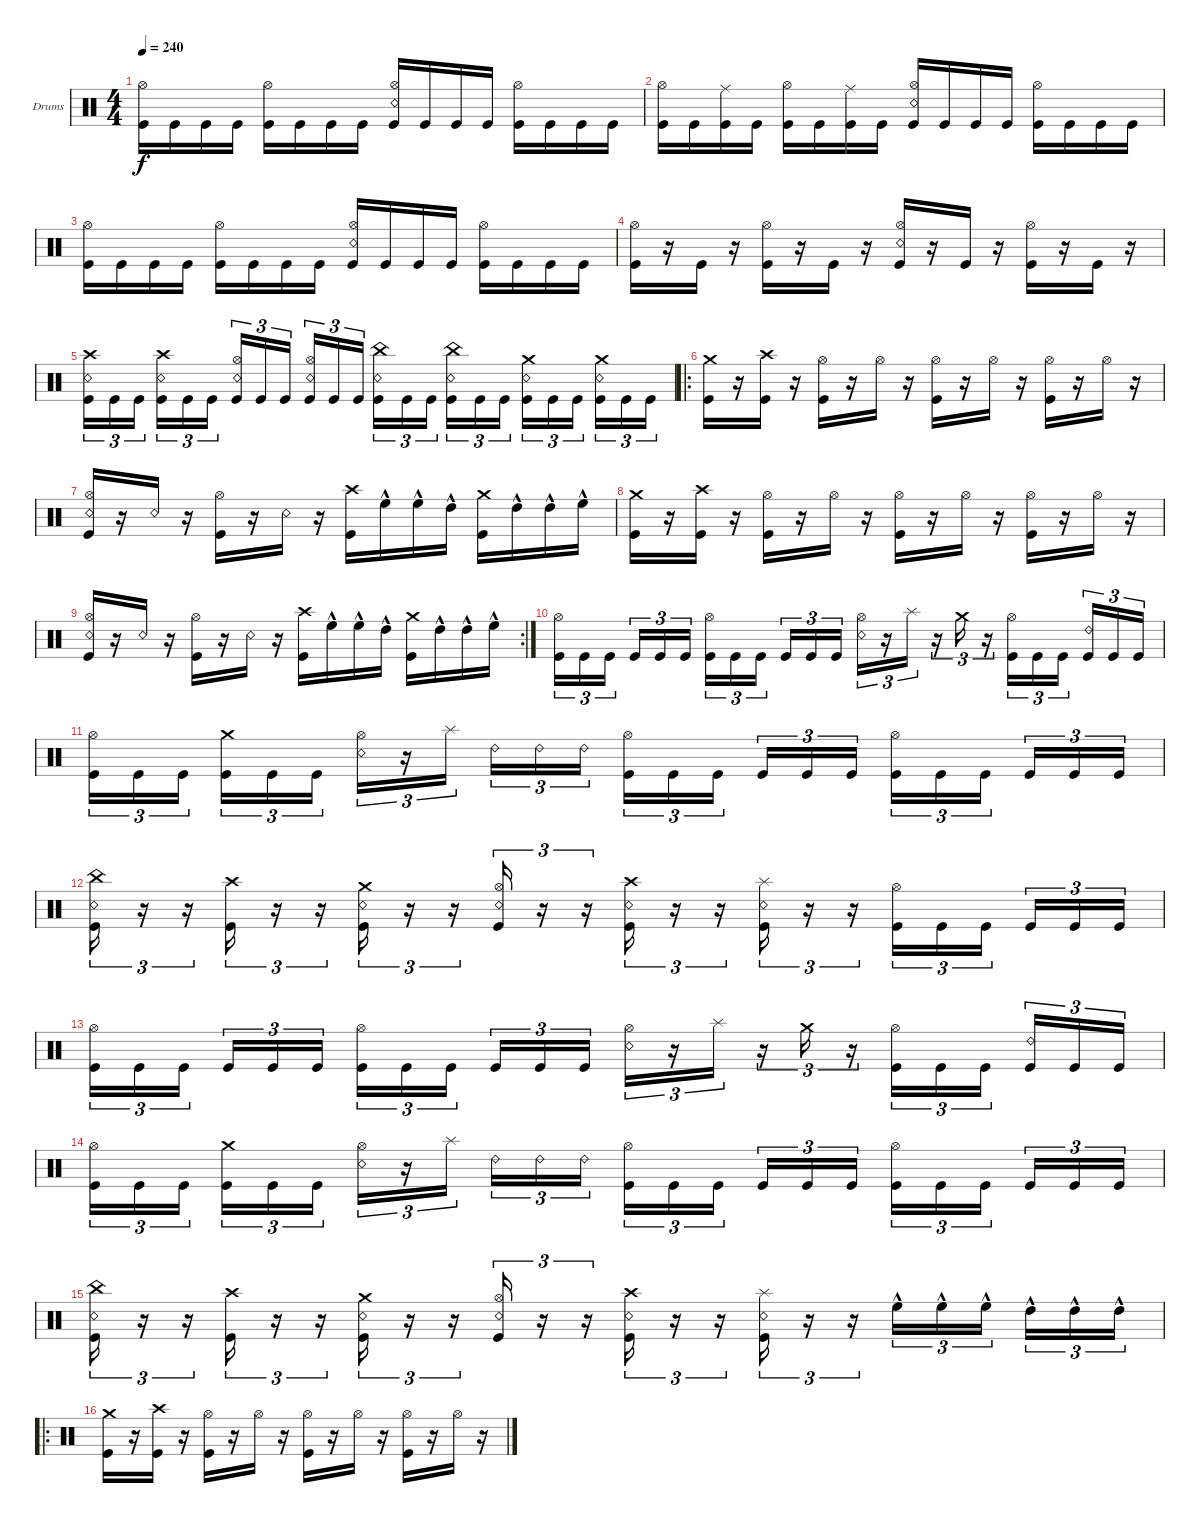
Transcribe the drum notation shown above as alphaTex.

\bracketExtendMode groupsimilarinstruments
\firstSystemTrackNameOrientation horizontal
\otherSystemsTrackNameOrientation horizontal
\track ("Drumkit" "Drums") {instrument percussion}
\staff {score}
\articulation defaults
\ts (4 4)
\tempo 240
\clef neutral
\ks c
("Kick (hit)" "Hi-Hat (open)").16{dy f} "Kick (hit)".16 "Kick (hit)".16 "Kick (hit)".16 ("Kick (hit)" "Hi-Hat (open)").16 "Kick (hit)".16 "Kick (hit)".16 "Kick (hit)".16 ("Kick (hit)" "Hi-Hat (open)" "Snare (rim shot)").16 "Kick (hit)".16 "Kick (hit)".16 "Kick (hit)".16 ("Kick (hit)" "Hi-Hat (open)").16 "Kick (hit)".16 "Kick (hit)".16 "Kick (hit)".16 |
("Kick (hit)" "Hi-Hat (open)").16 "Kick (hit)".16 ("Kick (hit)" "Ride (middle)").16 "Kick (hit)".16 ("Kick (hit)" "Hi-Hat (open)").16 "Kick (hit)".16 ("Kick (hit)" "Ride (middle)").16 "Kick (hit)".16 ("Kick (hit)" "Hi-Hat (open)" "Snare (rim shot)").16 "Kick (hit)".16 "Kick (hit)".16 "Kick (hit)".16 ("Kick (hit)" "Hi-Hat (open)").16 "Kick (hit)".16 "Kick (hit)".16 "Kick (hit)".16 |
("Kick (hit)" "Hi-Hat (open)").16 "Kick (hit)".16 "Kick (hit)".16 "Kick (hit)".16 ("Kick (hit)" "Hi-Hat (open)").16 "Kick (hit)".16 "Kick (hit)".16 "Kick (hit)".16 ("Kick (hit)" "Hi-Hat (open)" "Snare (rim shot)").16 "Kick (hit)".16 "Kick (hit)".16 "Kick (hit)".16 ("Kick (hit)" "Hi-Hat (open)").16 "Kick (hit)".16 "Kick (hit)".16 "Kick (hit)".16 |
("Kick (hit)" "Hi-Hat (open)").16 r.16 "Kick (hit)".16 r.16 ("Kick (hit)" "Hi-Hat (open)").16 r.16 "Kick (hit)".16 r.16 ("Kick (hit)" "Hi-Hat (open)" "Snare (rim shot)").16 r.16 "Kick (hit)".16 r.16 ("Kick (hit)" "Hi-Hat (open)").16 r.16 "Kick (hit)".16 r.16 |
("Kick (hit)" "Snare (rim shot)" "Crash high (hit)").16{tu (3 2)} "Kick (hit)".16{tu (3 2)} "Kick (hit)".16{tu (3 2)} ("Kick (hit)" "Snare (rim shot)" "Crash high (hit)").16{tu (3 2)} "Kick (hit)".16{tu (3 2)} "Kick (hit)".16{tu (3 2)} ("Kick (hit)" "Snare (rim shot)" "Hi-Hat (open)").16{tu (3 2)} "Kick (hit)".16{tu (3 2)} "Kick (hit)".16{tu (3 2)} ("Kick (hit)" "Snare (rim shot)" "Hi-Hat (open)").16{tu (3 2)} "Kick (hit)".16{tu (3 2)} "Kick (hit)".16{tu (3 2)} ("Kick (hit)" "Snare (rim shot)" "China (hit)").16{tu (3 2)} "Kick (hit)".16{tu (3 2)} "Kick (hit)".16{tu (3 2)} ("Kick (hit)" "Snare (rim shot)" "China (hit)").16{tu (3 2)} "Kick (hit)".16{tu (3 2)} "Kick (hit)".16{tu (3 2)} ("Kick (hit)" "Snare (rim shot)" "Crash medium (hit)").16{tu (3 2)} "Kick (hit)".16{tu (3 2)} "Kick (hit)".16{tu (3 2)} ("Kick (hit)" "Snare (rim shot)" "Crash medium (hit)").16{tu (3 2)} "Kick (hit)".16{tu (3 2)} "Kick (hit)".16{tu (3 2)} |
\ro
("Crash medium (hit)" "Kick (hit)").16 r.16 ("Crash high (hit)" "Kick (hit)").16 r.16 ("Hi-Hat (open)" "Kick (hit)").16 r.16 "Hi-Hat (open)".16 r.16 ("Hi-Hat (open)" "Kick (hit)").16 r.16 "Hi-Hat (open)".16 r.16 ("Hi-Hat (open)" "Kick (hit)").16 r.16 "Hi-Hat (open)".16 r.16 |
("Hi-Hat (open)" "Snare (rim shot)" "Kick (hit)").16 r.16 "Snare (rim shot)".16 r.16 ("Hi-Hat (open)" "Kick (hit)").16 r.16 "Snare (rim shot)".16 r.16 ("Crash high (hit)" "Kick (hit)").16 "High Floor Tom (hit)"{hac}.16 "High Floor Tom (hit)"{hac}.16 "High Tom (hit)"{hac}.16 ("Crash medium (hit)" "Kick (hit)").16 "High Tom (hit)"{hac}.16 "High Tom (hit)"{hac}.16 "High Floor Tom (hit)"{hac}.16 |
("Crash medium (hit)" "Kick (hit)").16 r.16 ("Crash high (hit)" "Kick (hit)").16 r.16 ("Hi-Hat (open)" "Kick (hit)").16 r.16 "Hi-Hat (open)".16 r.16 ("Hi-Hat (open)" "Kick (hit)").16 r.16 "Hi-Hat (open)".16 r.16 ("Hi-Hat (open)" "Kick (hit)").16 r.16 "Hi-Hat (open)".16 r.16 |
\rc 2
("Hi-Hat (open)" "Snare (rim shot)" "Kick (hit)").16 r.16 "Snare (rim shot)".16 r.16 ("Hi-Hat (open)" "Kick (hit)").16 r.16 "Snare (rim shot)".16 r.16 ("Crash high (hit)" "Kick (hit)").16 "High Floor Tom (hit)"{hac}.16 "High Floor Tom (hit)"{hac}.16 "High Tom (hit)"{hac}.16 ("Crash medium (hit)" "Kick (hit)").16 "High Tom (hit)"{hac}.16 "High Tom (hit)"{hac}.16 "High Floor Tom (hit)"{hac}.16 |
("Kick (hit)" "Hi-Hat (open)").16{tu (3 2)} "Kick (hit)".16{tu (3 2)} "Kick (hit)".16{tu (3 2)} "Kick (hit)".16{tu (3 2)} "Kick (hit)".16{tu (3 2)} "Kick (hit)".16{tu (3 2)} ("Kick (hit)" "Hi-Hat (open)").16{tu (3 2)} "Kick (hit)".16{tu (3 2)} "Kick (hit)".16{tu (3 2)} "Kick (hit)".16{tu (3 2)} "Kick (hit)".16{tu (3 2)} "Kick (hit)".16{tu (3 2)} ("Hi-Hat (open)" "Snare (rim shot)").16{tu (3 2)} r.16{tu (3 2)} "Splash (hit)".16{tu (3 2)} r.16{tu (3 2)} "Crash medium (hit)".16{tu (3 2)} r.16{tu (3 2)} ("Kick (hit)" "Hi-Hat (open)").16{tu (3 2)} "Kick (hit)".16{tu (3 2)} "Kick (hit)".16{tu (3 2)} ("Kick (hit)" "Ride (bell) 2").16{tu (3 2)} "Kick (hit)".16{tu (3 2)} "Kick (hit)".16{tu (3 2)} |
("Kick (hit)" "Hi-Hat (open)").16{tu (3 2)} "Kick (hit)".16{tu (3 2)} "Kick (hit)".16{tu (3 2)} ("Kick (hit)" "Crash medium (hit)").16{tu (3 2)} "Kick (hit)".16{tu (3 2)} "Kick (hit)".16{tu (3 2)} ("Hi-Hat (open)" "Snare (rim shot)").16{tu (3 2)} r.16{tu (3 2)} "Splash (hit)".16{tu (3 2)} "Ride (bell) 2".16{tu (3 2)} "Ride (bell) 2".16{tu (3 2)} "Ride (bell) 2".16{tu (3 2)} ("Kick (hit)" "Hi-Hat (open)").16{tu (3 2)} "Kick (hit)".16{tu (3 2)} "Kick (hit)".16{tu (3 2)} "Kick (hit)".16{tu (3 2)} "Kick (hit)".16{tu (3 2)} "Kick (hit)".16{tu (3 2)} ("Kick (hit)" "Hi-Hat (open)").16{tu (3 2)} "Kick (hit)".16{tu (3 2)} "Kick (hit)".16{tu (3 2)} "Kick (hit)".16{tu (3 2)} "Kick (hit)".16{tu (3 2)} "Kick (hit)".16{tu (3 2)} |
("Snare (rim shot)" "China (hit)" "Kick (hit)").16{tu (3 2)} r.16{tu (3 2)} r.16{tu (3 2)} ("Crash high (hit)" "Kick (hit)").16{tu (3 2)} r.16{tu (3 2)} r.16{tu (3 2)} ("Snare (rim shot)" "Crash medium (hit)" "Kick (hit)").16{tu (3 2)} r.16{tu (3 2)} r.16{tu (3 2)} ("Snare (rim shot)" "Hi-Hat (open)" "Kick (hit)").16{tu (3 2)} r.16{tu (3 2)} r.16{tu (3 2)} ("Snare (rim shot)" "Crash high (hit)" "Kick (hit)").16{tu (3 2)} r.16{tu (3 2)} r.16{tu (3 2)} ("Snare (rim shot)" "Splash (hit)" "Kick (hit)").16{tu (3 2)} r.16{tu (3 2)} r.16{tu (3 2)} ("Kick (hit)" "Hi-Hat (open)").16{tu (3 2)} "Kick (hit)".16{tu (3 2)} "Kick (hit)".16{tu (3 2)} "Kick (hit)".16{tu (3 2)} "Kick (hit)".16{tu (3 2)} "Kick (hit)".16{tu (3 2)} |
("Kick (hit)" "Hi-Hat (open)").16{tu (3 2)} "Kick (hit)".16{tu (3 2)} "Kick (hit)".16{tu (3 2)} "Kick (hit)".16{tu (3 2)} "Kick (hit)".16{tu (3 2)} "Kick (hit)".16{tu (3 2)} ("Kick (hit)" "Hi-Hat (open)").16{tu (3 2)} "Kick (hit)".16{tu (3 2)} "Kick (hit)".16{tu (3 2)} "Kick (hit)".16{tu (3 2)} "Kick (hit)".16{tu (3 2)} "Kick (hit)".16{tu (3 2)} ("Hi-Hat (open)" "Snare (rim shot)").16{tu (3 2)} r.16{tu (3 2)} "Splash (hit)".16{tu (3 2)} r.16{tu (3 2)} "Crash medium (hit)".16{tu (3 2)} r.16{tu (3 2)} ("Kick (hit)" "Hi-Hat (open)").16{tu (3 2)} "Kick (hit)".16{tu (3 2)} "Kick (hit)".16{tu (3 2)} ("Kick (hit)" "Ride (bell) 2").16{tu (3 2)} "Kick (hit)".16{tu (3 2)} "Kick (hit)".16{tu (3 2)} |
("Kick (hit)" "Hi-Hat (open)").16{tu (3 2)} "Kick (hit)".16{tu (3 2)} "Kick (hit)".16{tu (3 2)} ("Kick (hit)" "Crash medium (hit)").16{tu (3 2)} "Kick (hit)".16{tu (3 2)} "Kick (hit)".16{tu (3 2)} ("Hi-Hat (open)" "Snare (rim shot)").16{tu (3 2)} r.16{tu (3 2)} "Splash (hit)".16{tu (3 2)} "Ride (bell) 2".16{tu (3 2)} "Ride (bell) 2".16{tu (3 2)} "Ride (bell) 2".16{tu (3 2)} ("Kick (hit)" "Hi-Hat (open)").16{tu (3 2)} "Kick (hit)".16{tu (3 2)} "Kick (hit)".16{tu (3 2)} "Kick (hit)".16{tu (3 2)} "Kick (hit)".16{tu (3 2)} "Kick (hit)".16{tu (3 2)} ("Kick (hit)" "Hi-Hat (open)").16{tu (3 2)} "Kick (hit)".16{tu (3 2)} "Kick (hit)".16{tu (3 2)} "Kick (hit)".16{tu (3 2)} "Kick (hit)".16{tu (3 2)} "Kick (hit)".16{tu (3 2)} |
("Snare (rim shot)" "China (hit)" "Kick (hit)").16{tu (3 2)} r.16{tu (3 2)} r.16{tu (3 2)} ("Crash high (hit)" "Kick (hit)").16{tu (3 2)} r.16{tu (3 2)} r.16{tu (3 2)} ("Snare (rim shot)" "Crash medium (hit)" "Kick (hit)").16{tu (3 2)} r.16{tu (3 2)} r.16{tu (3 2)} ("Snare (rim shot)" "Hi-Hat (open)" "Kick (hit)").16{tu (3 2)} r.16{tu (3 2)} r.16{tu (3 2)} ("Snare (rim shot)" "Crash high (hit)" "Kick (hit)").16{tu (3 2)} r.16{tu (3 2)} r.16{tu (3 2)} ("Snare (rim shot)" "Splash (hit)" "Kick (hit)").16{tu (3 2)} r.16{tu (3 2)} r.16{tu (3 2)} "High Floor Tom (hit)"{hac}.16{tu (3 2)} "High Floor Tom (hit)"{hac}.16{tu (3 2)} "High Floor Tom (hit)"{hac}.16{tu (3 2)} "High Tom (hit)"{hac}.16{tu (3 2)} "High Tom (hit)"{hac}.16{tu (3 2)} "High Tom (hit)"{hac}.16{tu (3 2)} |
\ro
("Crash medium (hit)" "Kick (hit)").16 r.16 ("Crash high (hit)" "Kick (hit)").16 r.16 ("Hi-Hat (open)" "Kick (hit)").16 r.16 "Hi-Hat (open)".16 r.16 ("Hi-Hat (open)" "Kick (hit)").16 r.16 "Hi-Hat (open)".16 r.16 ("Hi-Hat (open)" "Kick (hit)").16 r.16 "Hi-Hat (open)".16 r.16
